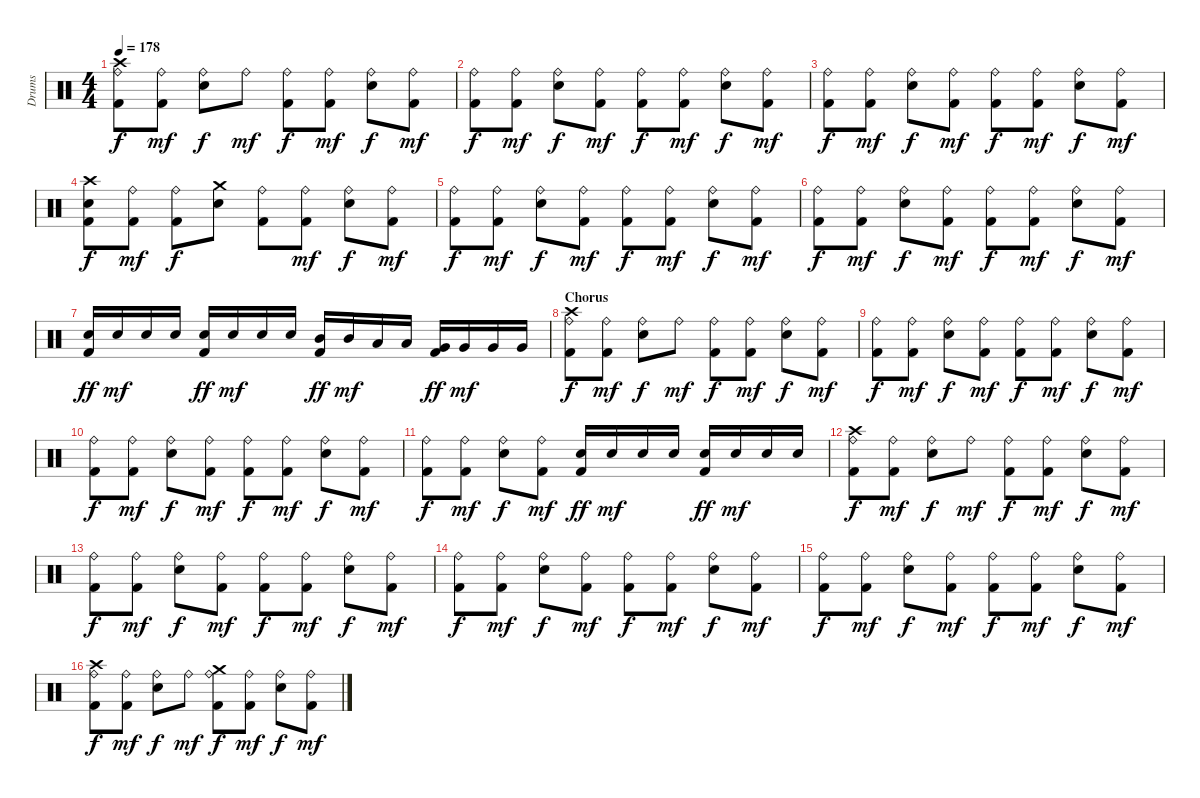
\track ("Drums" "Drums") {instrument percussion}
\staff {score}
\articulation defaults
\ts (4 4)
\tempo 178
\clef neutral
\ks c
("Crash high (hit)" "Ride (bell)" "Kick (hit) 2").8{dy f} ("Ride (bell)" "Kick (hit) 2").8{dy mf} ("Ride (bell)" "Electric Snare (hit)").8{dy f} "Ride (bell)".8{dy mf} ("Ride (bell)" "Kick (hit) 2").8{dy f} ("Ride (bell)" "Kick (hit) 2").8{dy mf} ("Ride (bell)" "Electric Snare (hit)").8{dy f} ("Ride (bell)" "Kick (hit) 2").8{dy mf} |
("Ride (bell)" "Kick (hit) 2").8{dy f} ("Ride (bell)" "Kick (hit) 2").8{dy mf} ("Ride (bell)" "Electric Snare (hit)").8{dy f} ("Ride (bell)" "Kick (hit) 2").8{dy mf} ("Ride (bell)" "Kick (hit) 2").8{dy f} ("Ride (bell)" "Kick (hit) 2").8{dy mf} ("Ride (bell)" "Electric Snare (hit)").8{dy f} ("Ride (bell)" "Kick (hit) 2").8{dy mf} |
("Ride (bell)" "Kick (hit) 2").8{dy f} ("Ride (bell)" "Kick (hit) 2").8{dy mf} ("Ride (bell)" "Electric Snare (hit)").8{dy f} ("Ride (bell)" "Kick (hit) 2").8{dy mf} ("Ride (bell)" "Kick (hit) 2").8{dy f} ("Ride (bell)" "Kick (hit) 2").8{dy mf} ("Ride (bell)" "Electric Snare (hit)").8{dy f} ("Ride (bell)" "Kick (hit) 2").8{dy mf} |
("Crash high (hit)" "Electric Snare (hit)" "Kick (hit) 2").8{dy f} ("Ride (bell)" "Kick (hit) 2").8{dy mf} ("Ride (bell)" "Kick (hit) 2").8{dy f} ("Crash medium (hit)" "Electric Snare (hit)").8 ("Ride (bell)" "Kick (hit) 2").8 ("Ride (bell)" "Kick (hit) 2").8{dy mf} ("Ride (bell)" "Electric Snare (hit)").8{dy f} ("Ride (bell)" "Kick (hit) 2").8{dy mf} |
("Ride (bell)" "Kick (hit) 2").8{dy f} ("Ride (bell)" "Kick (hit) 2").8{dy mf} ("Ride (bell)" "Electric Snare (hit)").8{dy f} ("Ride (bell)" "Kick (hit) 2").8{dy mf} ("Ride (bell)" "Kick (hit) 2").8{dy f} ("Ride (bell)" "Kick (hit) 2").8{dy mf} ("Ride (bell)" "Electric Snare (hit)").8{dy f} ("Ride (bell)" "Kick (hit) 2").8{dy mf} |
("Ride (bell)" "Kick (hit) 2").8{dy f} ("Ride (bell)" "Kick (hit) 2").8{dy mf} ("Ride (bell)" "Electric Snare (hit)").8{dy f} ("Ride (bell)" "Kick (hit) 2").8{dy mf} ("Ride (bell)" "Kick (hit) 2").8{dy f} ("Ride (bell)" "Kick (hit) 2").8{dy mf} ("Ride (bell)" "Electric Snare (hit)").8{dy f} ("Ride (bell)" "Kick (hit) 2").8{dy mf} |
("Electric Snare (hit)" "Kick (hit) 2").16{dy ff} "Electric Snare (hit)".16{dy mf} "Electric Snare (hit)".16 "Electric Snare (hit)".16 ("Electric Snare (hit)" "Kick (hit) 2").16{dy ff} "Electric Snare (hit)".16{dy mf} "Electric Snare (hit)".16 "Electric Snare (hit)".16 ("Mid Tom (hit)" "Kick (hit) 2").16{dy ff} "Mid Tom (hit)".16{dy mf} "Low Tom (hit)".16 "Low Tom (hit)".16 ("Very Low Tom (hit)" "Kick (hit) 2").16{dy ff} "Very Low Tom (hit)".16{dy mf} "Very Low Tom (hit)".16 "Very Low Tom (hit)".16 |
\section ("" "Chorus")
("Crash high (hit)" "Ride (bell)" "Kick (hit) 2").8{dy f} ("Ride (bell)" "Kick (hit) 2").8{dy mf} ("Ride (bell)" "Electric Snare (hit)").8{dy f} "Ride (bell)".8{dy mf} ("Ride (bell)" "Kick (hit) 2").8{dy f} ("Ride (bell)" "Kick (hit) 2").8{dy mf} ("Ride (bell)" "Electric Snare (hit)").8{dy f} ("Ride (bell)" "Kick (hit) 2").8{dy mf} |
("Ride (bell)" "Kick (hit) 2").8{dy f} ("Ride (bell)" "Kick (hit) 2").8{dy mf} ("Ride (bell)" "Electric Snare (hit)").8{dy f} ("Ride (bell)" "Kick (hit) 2").8{dy mf} ("Ride (bell)" "Kick (hit) 2").8{dy f} ("Ride (bell)" "Kick (hit) 2").8{dy mf} ("Ride (bell)" "Electric Snare (hit)").8{dy f} ("Ride (bell)" "Kick (hit) 2").8{dy mf} |
("Ride (bell)" "Kick (hit) 2").8{dy f} ("Ride (bell)" "Kick (hit) 2").8{dy mf} ("Ride (bell)" "Electric Snare (hit)").8{dy f} ("Ride (bell)" "Kick (hit) 2").8{dy mf} ("Ride (bell)" "Kick (hit) 2").8{dy f} ("Ride (bell)" "Kick (hit) 2").8{dy mf} ("Ride (bell)" "Electric Snare (hit)").8{dy f} ("Ride (bell)" "Kick (hit) 2").8{dy mf} |
("Ride (bell)" "Kick (hit) 2").8{dy f} ("Ride (bell)" "Kick (hit) 2").8{dy mf} ("Ride (bell)" "Electric Snare (hit)").8{dy f} ("Ride (bell)" "Kick (hit) 2").8{dy mf} ("Electric Snare (hit)" "Kick (hit) 2").16{dy ff} "Electric Snare (hit)".16{dy mf} "Electric Snare (hit)".16 "Electric Snare (hit)".16 ("Electric Snare (hit)" "Kick (hit) 2").16{dy ff} "Electric Snare (hit)".16{dy mf} "Electric Snare (hit)".16 "Electric Snare (hit)".16 |
("Crash high (hit)" "Ride (bell)" "Kick (hit) 2").8{dy f} ("Ride (bell)" "Kick (hit) 2").8{dy mf} ("Ride (bell)" "Electric Snare (hit)").8{dy f} "Ride (bell)".8{dy mf} ("Ride (bell)" "Kick (hit) 2").8{dy f} ("Ride (bell)" "Kick (hit) 2").8{dy mf} ("Ride (bell)" "Electric Snare (hit)").8{dy f} ("Ride (bell)" "Kick (hit) 2").8{dy mf} |
("Ride (bell)" "Kick (hit) 2").8{dy f} ("Ride (bell)" "Kick (hit) 2").8{dy mf} ("Ride (bell)" "Electric Snare (hit)").8{dy f} ("Ride (bell)" "Kick (hit) 2").8{dy mf} ("Ride (bell)" "Kick (hit) 2").8{dy f} ("Ride (bell)" "Kick (hit) 2").8{dy mf} ("Ride (bell)" "Electric Snare (hit)").8{dy f} ("Ride (bell)" "Kick (hit) 2").8{dy mf} |
("Ride (bell)" "Kick (hit) 2").8{dy f} ("Ride (bell)" "Kick (hit) 2").8{dy mf} ("Ride (bell)" "Electric Snare (hit)").8{dy f} ("Ride (bell)" "Kick (hit) 2").8{dy mf} ("Ride (bell)" "Kick (hit) 2").8{dy f} ("Ride (bell)" "Kick (hit) 2").8{dy mf} ("Ride (bell)" "Electric Snare (hit)").8{dy f} ("Ride (bell)" "Kick (hit) 2").8{dy mf} |
("Ride (bell)" "Kick (hit) 2").8{dy f} ("Ride (bell)" "Kick (hit) 2").8{dy mf} ("Ride (bell)" "Electric Snare (hit)").8{dy f} ("Ride (bell)" "Kick (hit) 2").8{dy mf} ("Ride (bell)" "Kick (hit) 2").8{dy f} ("Ride (bell)" "Kick (hit) 2").8{dy mf} ("Ride (bell)" "Electric Snare (hit)").8{dy f} ("Ride (bell)" "Kick (hit) 2").8{dy mf} |
("Crash high (hit)" "Ride (bell)" "Kick (hit) 2").8{dy f} ("Ride (bell)" "Kick (hit) 2").8{dy mf} ("Ride (bell)" "Electric Snare (hit)").8{dy f} "Ride (bell)".8{dy mf} ("Crash medium (hit)" "Ride (bell)" "Kick (hit) 2").8{dy f} ("Ride (bell)" "Kick (hit) 2").8{dy mf} ("Ride (bell)" "Electric Snare (hit)").8{dy f} ("Ride (bell)" "Kick (hit) 2").8{dy mf}
